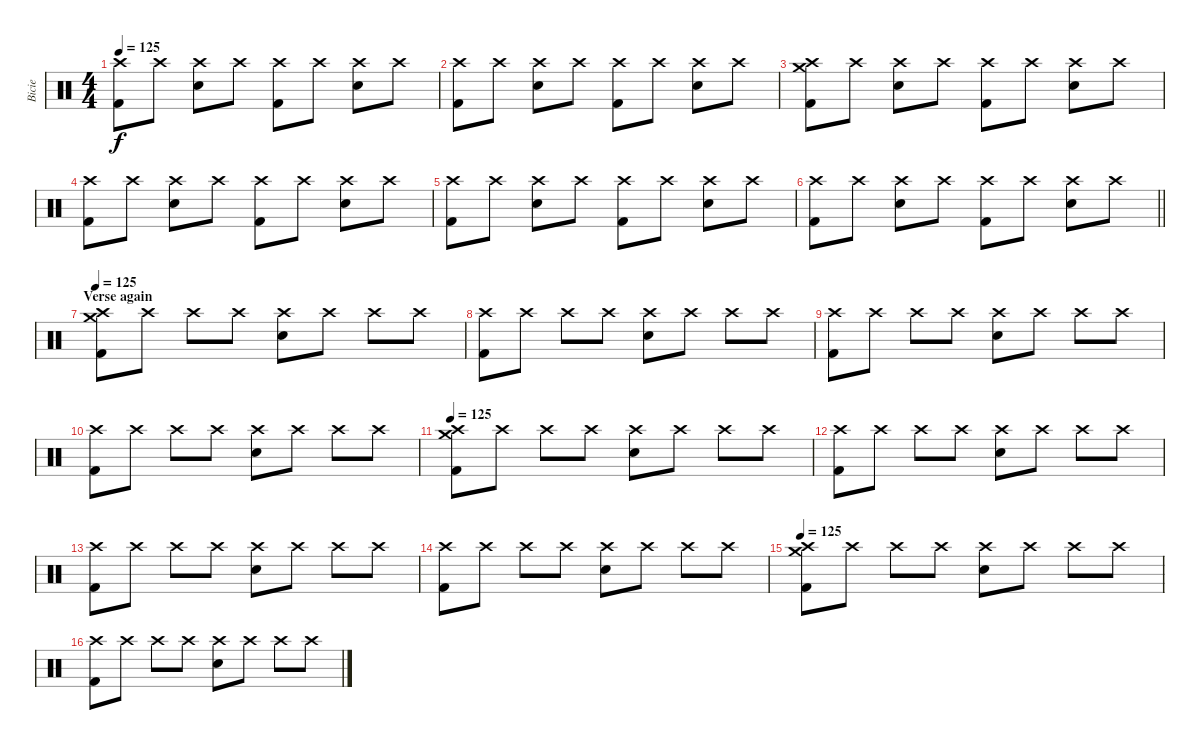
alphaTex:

\track ("Bicie" "Bicie") {instrument percussion}
\staff {score}
\articulation defaults
\ts (4 4)
\tempo 125
\clef neutral
\ks c
("Crash high (hit)" "Kick (hit) 2").8{dy f} "Crash high (hit)".8 ("Crash high (hit)" "Snare (hit) 2").8 "Crash high (hit)".8 ("Crash high (hit)" "Kick (hit) 2").8 "Crash high (hit)".8 ("Crash high (hit)" "Snare (hit) 2").8 "Crash high (hit)".8 |
("Crash high (hit)" "Kick (hit) 2").8 "Crash high (hit)".8 ("Crash high (hit)" "Snare (hit) 2").8 "Crash high (hit)".8 ("Crash high (hit)" "Kick (hit) 2").8 "Crash high (hit)".8 ("Crash high (hit)" "Snare (hit) 2").8 "Crash high (hit)".8 |
("Crash medium (hit)" "Crash high (hit)" "Kick (hit) 2").8 "Crash high (hit)".8 ("Crash high (hit)" "Snare (hit) 2").8 "Crash high (hit)".8 ("Crash high (hit)" "Kick (hit) 2").8 "Crash high (hit)".8 ("Crash high (hit)" "Snare (hit) 2").8 "Crash high (hit)".8 |
("Crash high (hit)" "Kick (hit) 2").8 "Crash high (hit)".8 ("Crash high (hit)" "Snare (hit) 2").8 "Crash high (hit)".8 ("Crash high (hit)" "Kick (hit) 2").8 "Crash high (hit)".8 ("Crash high (hit)" "Snare (hit) 2").8 "Crash high (hit)".8 |
("Crash high (hit)" "Kick (hit) 2").8 "Crash high (hit)".8 ("Crash high (hit)" "Snare (hit) 2").8 "Crash high (hit)".8 ("Crash high (hit)" "Kick (hit) 2").8 "Crash high (hit)".8 ("Crash high (hit)" "Snare (hit) 2").8 "Crash high (hit)".8 |
\barLineRight lightlight
("Crash high (hit)" "Kick (hit) 2").8 "Crash high (hit)".8 ("Crash high (hit)" "Snare (hit) 2").8 "Crash high (hit)".8 ("Crash high (hit)" "Kick (hit) 2").8 "Crash high (hit)".8 ("Crash high (hit)" "Snare (hit) 2").8 "Crash high (hit)".8 |
\section ("" "Verse again")
\tempo 125
("Crash medium (hit)" "Crash high (hit)" "Kick (hit) 2").8 "Crash high (hit)".8 "Crash high (hit)".8 "Crash high (hit)".8 ("Crash high (hit)" "Snare (hit) 2").8 "Crash high (hit)".8 "Crash high (hit)".8 "Crash high (hit)".8 |
("Crash high (hit)" "Kick (hit) 2").8 "Crash high (hit)".8 "Crash high (hit)".8 "Crash high (hit)".8 ("Crash high (hit)" "Snare (hit) 2").8 "Crash high (hit)".8 "Crash high (hit)".8 "Crash high (hit)".8 |
("Crash high (hit)" "Kick (hit) 2").8 "Crash high (hit)".8 "Crash high (hit)".8 "Crash high (hit)".8 ("Crash high (hit)" "Snare (hit) 2").8 "Crash high (hit)".8 "Crash high (hit)".8 "Crash high (hit)".8 |
("Crash high (hit)" "Kick (hit) 2").8 "Crash high (hit)".8 "Crash high (hit)".8 "Crash high (hit)".8 ("Crash high (hit)" "Snare (hit) 2").8 "Crash high (hit)".8 "Crash high (hit)".8 "Crash high (hit)".8 |
\tempo 125
("Crash medium (hit)" "Crash high (hit)" "Kick (hit) 2").8 "Crash high (hit)".8 "Crash high (hit)".8 "Crash high (hit)".8 ("Crash high (hit)" "Snare (hit) 2").8 "Crash high (hit)".8 "Crash high (hit)".8 "Crash high (hit)".8 |
("Crash high (hit)" "Kick (hit) 2").8 "Crash high (hit)".8 "Crash high (hit)".8 "Crash high (hit)".8 ("Crash high (hit)" "Snare (hit) 2").8 "Crash high (hit)".8 "Crash high (hit)".8 "Crash high (hit)".8 |
("Crash high (hit)" "Kick (hit) 2").8 "Crash high (hit)".8 "Crash high (hit)".8 "Crash high (hit)".8 ("Crash high (hit)" "Snare (hit) 2").8 "Crash high (hit)".8 "Crash high (hit)".8 "Crash high (hit)".8 |
("Crash high (hit)" "Kick (hit) 2").8 "Crash high (hit)".8 "Crash high (hit)".8 "Crash high (hit)".8 ("Crash high (hit)" "Snare (hit) 2").8 "Crash high (hit)".8 "Crash high (hit)".8 "Crash high (hit)".8 |
\tempo 125
("Crash medium (hit)" "Crash high (hit)" "Kick (hit) 2").8 "Crash high (hit)".8 "Crash high (hit)".8 "Crash high (hit)".8 ("Crash high (hit)" "Snare (hit) 2").8 "Crash high (hit)".8 "Crash high (hit)".8 "Crash high (hit)".8 |
("Crash high (hit)" "Kick (hit) 2").8 "Crash high (hit)".8 "Crash high (hit)".8 "Crash high (hit)".8 ("Crash high (hit)" "Snare (hit) 2").8 "Crash high (hit)".8 "Crash high (hit)".8 "Crash high (hit)".8
